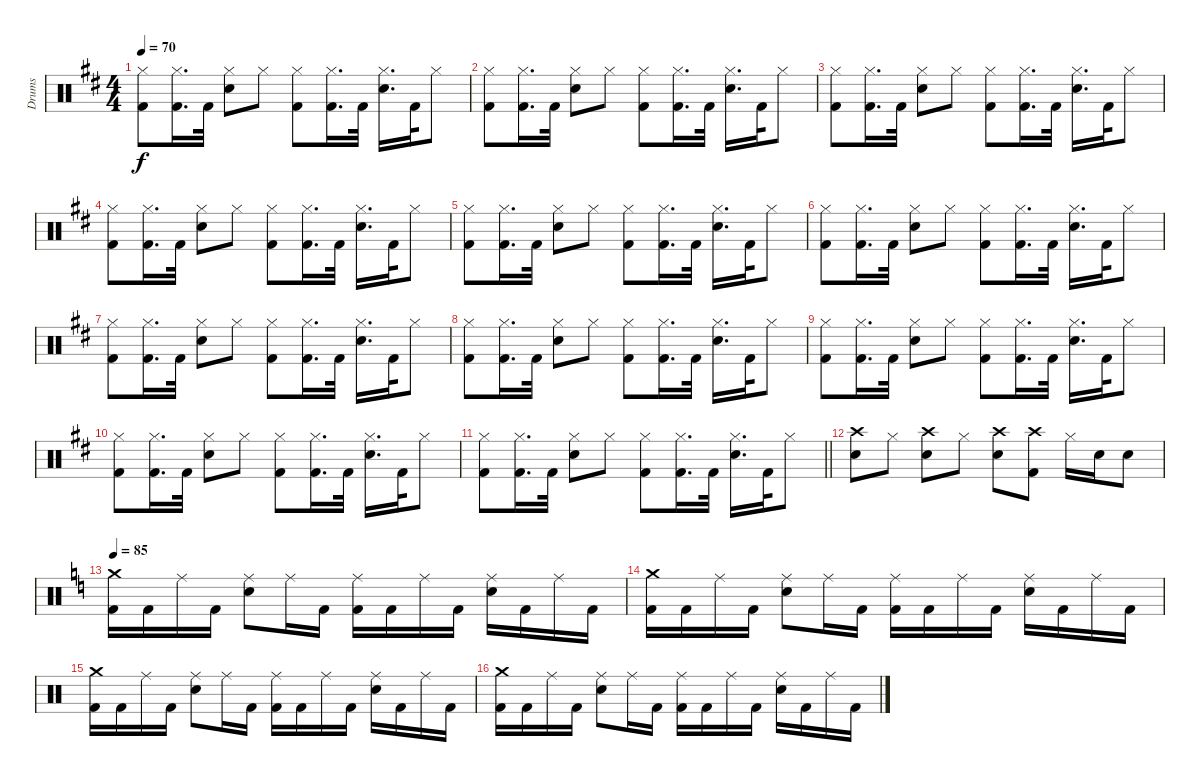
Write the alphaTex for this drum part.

\track ("Drums" "Drums") {instrument percussion}
\staff {score}
\articulation defaults
\ts (4 4)
\tempo 70
\clef neutral
\ks d
("Hi-Hat (closed)" "Kick (hit) 2").8{dy f} ("Hi-Hat (closed)" "Kick (hit) 2").16{d} "Kick (hit) 2".32 ("Hi-Hat (closed)" "Snare (hit) 2").8 "Hi-Hat (closed)".8 ("Hi-Hat (closed)" "Kick (hit) 2").8 ("Hi-Hat (closed)" "Kick (hit) 2").16{d} "Kick (hit) 2".32 ("Hi-Hat (closed)" "Snare (hit) 2").16{d} "Kick (hit) 2".32 "Hi-Hat (closed)".8 |
("Hi-Hat (closed)" "Kick (hit) 2").8 ("Hi-Hat (closed)" "Kick (hit) 2").16{d} "Kick (hit) 2".32 ("Hi-Hat (closed)" "Snare (hit) 2").8 "Hi-Hat (closed)".8 ("Hi-Hat (closed)" "Kick (hit) 2").8 ("Hi-Hat (closed)" "Kick (hit) 2").16{d} "Kick (hit) 2".32 ("Hi-Hat (closed)" "Snare (hit) 2").16{d} "Kick (hit) 2".32 "Hi-Hat (closed)".8 |
("Hi-Hat (closed)" "Kick (hit) 2").8 ("Hi-Hat (closed)" "Kick (hit) 2").16{d} "Kick (hit) 2".32 ("Hi-Hat (closed)" "Snare (hit) 2").8 "Hi-Hat (closed)".8 ("Hi-Hat (closed)" "Kick (hit) 2").8 ("Hi-Hat (closed)" "Kick (hit) 2").16{d} "Kick (hit) 2".32 ("Hi-Hat (closed)" "Snare (hit) 2").16{d} "Kick (hit) 2".32 "Hi-Hat (closed)".8 |
("Hi-Hat (closed)" "Kick (hit) 2").8 ("Hi-Hat (closed)" "Kick (hit) 2").16{d} "Kick (hit) 2".32 ("Hi-Hat (closed)" "Snare (hit) 2").8 "Hi-Hat (closed)".8 ("Hi-Hat (closed)" "Kick (hit) 2").8 ("Hi-Hat (closed)" "Kick (hit) 2").16{d} "Kick (hit) 2".32 ("Hi-Hat (closed)" "Snare (hit) 2").16{d} "Kick (hit) 2".32 "Hi-Hat (closed)".8 |
("Hi-Hat (closed)" "Kick (hit) 2").8 ("Hi-Hat (closed)" "Kick (hit) 2").16{d} "Kick (hit) 2".32 ("Hi-Hat (closed)" "Snare (hit) 2").8 "Hi-Hat (closed)".8 ("Hi-Hat (closed)" "Kick (hit) 2").8 ("Hi-Hat (closed)" "Kick (hit) 2").16{d} "Kick (hit) 2".32 ("Hi-Hat (closed)" "Snare (hit) 2").16{d} "Kick (hit) 2".32 "Hi-Hat (closed)".8 |
("Hi-Hat (closed)" "Kick (hit) 2").8 ("Hi-Hat (closed)" "Kick (hit) 2").16{d} "Kick (hit) 2".32 ("Hi-Hat (closed)" "Snare (hit) 2").8 "Hi-Hat (closed)".8 ("Hi-Hat (closed)" "Kick (hit) 2").8 ("Hi-Hat (closed)" "Kick (hit) 2").16{d} "Kick (hit) 2".32 ("Hi-Hat (closed)" "Snare (hit) 2").16{d} "Kick (hit) 2".32 "Hi-Hat (closed)".8 |
("Hi-Hat (closed)" "Kick (hit) 2").8 ("Hi-Hat (closed)" "Kick (hit) 2").16{d} "Kick (hit) 2".32 ("Hi-Hat (closed)" "Snare (hit) 2").8 "Hi-Hat (closed)".8 ("Hi-Hat (closed)" "Kick (hit) 2").8 ("Hi-Hat (closed)" "Kick (hit) 2").16{d} "Kick (hit) 2".32 ("Hi-Hat (closed)" "Snare (hit) 2").16{d} "Kick (hit) 2".32 "Hi-Hat (closed)".8 |
("Hi-Hat (closed)" "Kick (hit) 2").8 ("Hi-Hat (closed)" "Kick (hit) 2").16{d} "Kick (hit) 2".32 ("Hi-Hat (closed)" "Snare (hit) 2").8 "Hi-Hat (closed)".8 ("Hi-Hat (closed)" "Kick (hit) 2").8 ("Hi-Hat (closed)" "Kick (hit) 2").16{d} "Kick (hit) 2".32 ("Hi-Hat (closed)" "Snare (hit) 2").16{d} "Kick (hit) 2".32 "Hi-Hat (closed)".8 |
("Hi-Hat (closed)" "Kick (hit) 2").8 ("Hi-Hat (closed)" "Kick (hit) 2").16{d} "Kick (hit) 2".32 ("Hi-Hat (closed)" "Snare (hit) 2").8 "Hi-Hat (closed)".8 ("Hi-Hat (closed)" "Kick (hit) 2").8 ("Hi-Hat (closed)" "Kick (hit) 2").16{d} "Kick (hit) 2".32 ("Hi-Hat (closed)" "Snare (hit) 2").16{d} "Kick (hit) 2".32 "Hi-Hat (closed)".8 |
("Hi-Hat (closed)" "Kick (hit) 2").8 ("Hi-Hat (closed)" "Kick (hit) 2").16{d} "Kick (hit) 2".32 ("Hi-Hat (closed)" "Snare (hit) 2").8 "Hi-Hat (closed)".8 ("Hi-Hat (closed)" "Kick (hit) 2").8 ("Hi-Hat (closed)" "Kick (hit) 2").16{d} "Kick (hit) 2".32 ("Hi-Hat (closed)" "Snare (hit) 2").16{d} "Kick (hit) 2".32 "Hi-Hat (closed)".8 |
\barLineRight lightlight
("Hi-Hat (closed)" "Kick (hit) 2").8 ("Hi-Hat (closed)" "Kick (hit) 2").16{d} "Kick (hit) 2".32 ("Hi-Hat (closed)" "Snare (hit) 2").8 "Hi-Hat (closed)".8 ("Hi-Hat (closed)" "Kick (hit) 2").8 ("Hi-Hat (closed)" "Kick (hit) 2").16{d} "Kick (hit) 2".32 ("Hi-Hat (closed)" "Snare (hit) 2").16{d} "Kick (hit) 2".32 "Hi-Hat (closed)".8 |
("Crash high (hit)" "Snare (hit) 2").8 "Hi-Hat (closed)".8 ("Crash high (hit)" "Snare (hit) 2").8 "Hi-Hat (closed)".8 ("Crash high (hit)" "Snare (hit) 2").8 ("Crash high (hit)" "Kick (hit) 2").8 "Hi-Hat (closed)".16 "Snare (hit) 2".16 "Snare (hit) 2".8 |
\tempo 85
\ks c
("Crash medium (hit)" "Kick (hit) 2").16 "Kick (hit) 2".16 "Ride (middle)".16 "Kick (hit) 2".16 ("Ride (middle)" "Snare (hit) 2").8 "Ride (middle)".16 "Kick (hit) 2".16 ("Ride (middle)" "Kick (hit) 2").16 "Kick (hit) 2".16 "Ride (middle)".16 "Kick (hit) 2".16 ("Ride (middle)" "Snare (hit) 2").16 "Kick (hit) 2".16 "Ride (middle)".16 "Kick (hit) 2".16 |
("Crash medium (hit)" "Kick (hit) 2").16 "Kick (hit) 2".16 "Ride (middle)".16 "Kick (hit) 2".16 ("Ride (middle)" "Snare (hit) 2").8 "Ride (middle)".16 "Kick (hit) 2".16 ("Ride (middle)" "Kick (hit) 2").16 "Kick (hit) 2".16 "Ride (middle)".16 "Kick (hit) 2".16 ("Ride (middle)" "Snare (hit) 2").16 "Kick (hit) 2".16 "Ride (middle)".16 "Kick (hit) 2".16 |
("Crash medium (hit)" "Kick (hit) 2").16 "Kick (hit) 2".16 "Ride (middle)".16 "Kick (hit) 2".16 ("Ride (middle)" "Snare (hit) 2").8 "Ride (middle)".16 "Kick (hit) 2".16 ("Ride (middle)" "Kick (hit) 2").16 "Kick (hit) 2".16 "Ride (middle)".16 "Kick (hit) 2".16 ("Ride (middle)" "Snare (hit) 2").16 "Kick (hit) 2".16 "Ride (middle)".16 "Kick (hit) 2".16 |
("Crash medium (hit)" "Kick (hit) 2").16 "Kick (hit) 2".16 "Ride (middle)".16 "Kick (hit) 2".16 ("Ride (middle)" "Snare (hit) 2").8 "Ride (middle)".16 "Kick (hit) 2".16 ("Ride (middle)" "Kick (hit) 2").16 "Kick (hit) 2".16 "Ride (middle)".16 "Kick (hit) 2".16 ("Ride (middle)" "Snare (hit) 2").16 "Kick (hit) 2".16 "Ride (middle)".16 "Kick (hit) 2".16
